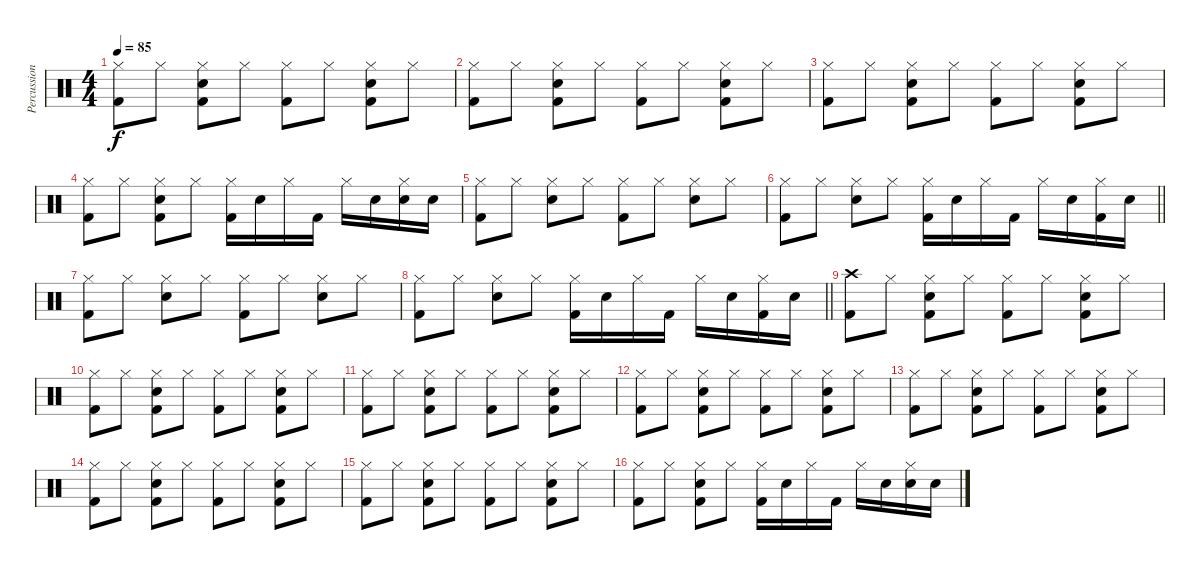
\track ("Percussion" "Percussion") {instrument percussion}
\staff {score}
\articulation defaults
\ts (4 4)
\tempo 85
\clef neutral
\ks c
("Hi-Hat (closed)" "Kick (hit) 2").8{dy f} "Hi-Hat (closed)".8 ("Hi-Hat (closed)" "Electric Snare (hit)" "Kick (hit) 2").8 "Hi-Hat (closed)".8 ("Hi-Hat (closed)" "Kick (hit) 2").8 "Hi-Hat (closed)".8 ("Hi-Hat (closed)" "Electric Snare (hit)" "Kick (hit) 2").8 "Hi-Hat (closed)".8 |
("Hi-Hat (closed)" "Kick (hit) 2").8 "Hi-Hat (closed)".8 ("Hi-Hat (closed)" "Electric Snare (hit)" "Kick (hit) 2").8 "Hi-Hat (closed)".8 ("Hi-Hat (closed)" "Kick (hit) 2").8 "Hi-Hat (closed)".8 ("Hi-Hat (closed)" "Electric Snare (hit)" "Kick (hit) 2").8 "Hi-Hat (closed)".8 |
("Hi-Hat (closed)" "Kick (hit) 2").8 "Hi-Hat (closed)".8 ("Hi-Hat (closed)" "Electric Snare (hit)" "Kick (hit) 2").8 "Hi-Hat (closed)".8 ("Hi-Hat (closed)" "Kick (hit) 2").8 "Hi-Hat (closed)".8 ("Hi-Hat (closed)" "Electric Snare (hit)" "Kick (hit) 2").8 "Hi-Hat (closed)".8 |
("Hi-Hat (closed)" "Kick (hit) 2").8 "Hi-Hat (closed)".8 ("Hi-Hat (closed)" "Electric Snare (hit)" "Kick (hit) 2").8 "Hi-Hat (closed)".8 ("Hi-Hat (closed)" "Kick (hit) 2").16 "Electric Snare (hit)".16 "Hi-Hat (closed)".16 "Kick (hit) 2".16 "Hi-Hat (closed)".16 "Electric Snare (hit)".16 ("Hi-Hat (closed)" "Electric Snare (hit)").16 "Electric Snare (hit)".16 |
("Hi-Hat (closed)" "Kick (hit) 2").8 "Hi-Hat (closed)".8 ("Hi-Hat (closed)" "Electric Snare (hit)").8 "Hi-Hat (closed)".8 ("Hi-Hat (closed)" "Kick (hit) 2").8 "Hi-Hat (closed)".8 ("Hi-Hat (closed)" "Electric Snare (hit)").8 "Hi-Hat (closed)".8 |
\barLineRight lightlight
("Hi-Hat (closed)" "Kick (hit) 2").8 "Hi-Hat (closed)".8 ("Hi-Hat (closed)" "Electric Snare (hit)").8 "Hi-Hat (closed)".8 ("Hi-Hat (closed)" "Kick (hit) 2").16 "Electric Snare (hit)".16 "Hi-Hat (closed)".16 "Kick (hit) 2".16 "Hi-Hat (closed)".16 "Electric Snare (hit)".16 ("Hi-Hat (closed)" "Kick (hit) 2").16 "Electric Snare (hit)".16 |
("Hi-Hat (closed)" "Kick (hit) 2").8 "Hi-Hat (closed)".8 ("Hi-Hat (closed)" "Electric Snare (hit)").8 "Hi-Hat (closed)".8 ("Hi-Hat (closed)" "Kick (hit) 2").8 "Hi-Hat (closed)".8 ("Hi-Hat (closed)" "Electric Snare (hit)").8 "Hi-Hat (closed)".8 |
\barLineRight lightlight
("Hi-Hat (closed)" "Kick (hit) 2").8 "Hi-Hat (closed)".8 ("Hi-Hat (closed)" "Electric Snare (hit)").8 "Hi-Hat (closed)".8 ("Hi-Hat (closed)" "Kick (hit) 2").16 "Electric Snare (hit)".16 "Hi-Hat (closed)".16 "Kick (hit) 2".16 "Hi-Hat (closed)".16 "Electric Snare (hit)".16 ("Hi-Hat (closed)" "Kick (hit) 2").16 "Electric Snare (hit)".16 |
("Crash high (hit)" "Kick (hit) 2").8 "Hi-Hat (closed)".8 ("Hi-Hat (closed)" "Electric Snare (hit)" "Kick (hit) 2").8 "Hi-Hat (closed)".8 ("Hi-Hat (closed)" "Kick (hit) 2").8 "Hi-Hat (closed)".8 ("Hi-Hat (closed)" "Electric Snare (hit)" "Kick (hit) 2").8 "Hi-Hat (closed)".8 |
("Hi-Hat (closed)" "Kick (hit) 2").8 "Hi-Hat (closed)".8 ("Hi-Hat (closed)" "Electric Snare (hit)" "Kick (hit) 2").8 "Hi-Hat (closed)".8 ("Hi-Hat (closed)" "Kick (hit) 2").8 "Hi-Hat (closed)".8 ("Hi-Hat (closed)" "Electric Snare (hit)" "Kick (hit) 2").8 "Hi-Hat (closed)".8 |
("Hi-Hat (closed)" "Kick (hit) 2").8 "Hi-Hat (closed)".8 ("Hi-Hat (closed)" "Electric Snare (hit)" "Kick (hit) 2").8 "Hi-Hat (closed)".8 ("Hi-Hat (closed)" "Kick (hit) 2").8 "Hi-Hat (closed)".8 ("Hi-Hat (closed)" "Electric Snare (hit)" "Kick (hit) 2").8 "Hi-Hat (closed)".8 |
("Hi-Hat (closed)" "Kick (hit) 2").8 "Hi-Hat (closed)".8 ("Hi-Hat (closed)" "Electric Snare (hit)" "Kick (hit) 2").8 "Hi-Hat (closed)".8 ("Hi-Hat (closed)" "Kick (hit) 2").8 "Hi-Hat (closed)".8 ("Hi-Hat (closed)" "Electric Snare (hit)" "Kick (hit) 2").8 "Hi-Hat (closed)".8 |
("Hi-Hat (closed)" "Kick (hit) 2").8 "Hi-Hat (closed)".8 ("Hi-Hat (closed)" "Electric Snare (hit)" "Kick (hit) 2").8 "Hi-Hat (closed)".8 ("Hi-Hat (closed)" "Kick (hit) 2").8 "Hi-Hat (closed)".8 ("Hi-Hat (closed)" "Electric Snare (hit)" "Kick (hit) 2").8 "Hi-Hat (closed)".8 |
("Hi-Hat (closed)" "Kick (hit) 2").8 "Hi-Hat (closed)".8 ("Hi-Hat (closed)" "Electric Snare (hit)" "Kick (hit) 2").8 "Hi-Hat (closed)".8 ("Hi-Hat (closed)" "Kick (hit) 2").8 "Hi-Hat (closed)".8 ("Hi-Hat (closed)" "Electric Snare (hit)" "Kick (hit) 2").8 "Hi-Hat (closed)".8 |
("Hi-Hat (closed)" "Kick (hit) 2").8 "Hi-Hat (closed)".8 ("Hi-Hat (closed)" "Electric Snare (hit)" "Kick (hit) 2").8 "Hi-Hat (closed)".8 ("Hi-Hat (closed)" "Kick (hit) 2").8 "Hi-Hat (closed)".8 ("Hi-Hat (closed)" "Electric Snare (hit)" "Kick (hit) 2").8 "Hi-Hat (closed)".8 |
("Hi-Hat (closed)" "Kick (hit) 2").8 "Hi-Hat (closed)".8 ("Hi-Hat (closed)" "Electric Snare (hit)" "Kick (hit) 2").8 "Hi-Hat (closed)".8 ("Hi-Hat (closed)" "Kick (hit) 2").16 "Electric Snare (hit)".16 "Hi-Hat (closed)".16 "Kick (hit) 2".16 "Hi-Hat (closed)".16 "Electric Snare (hit)".16 ("Hi-Hat (closed)" "Electric Snare (hit)").16 "Electric Snare (hit)".16
